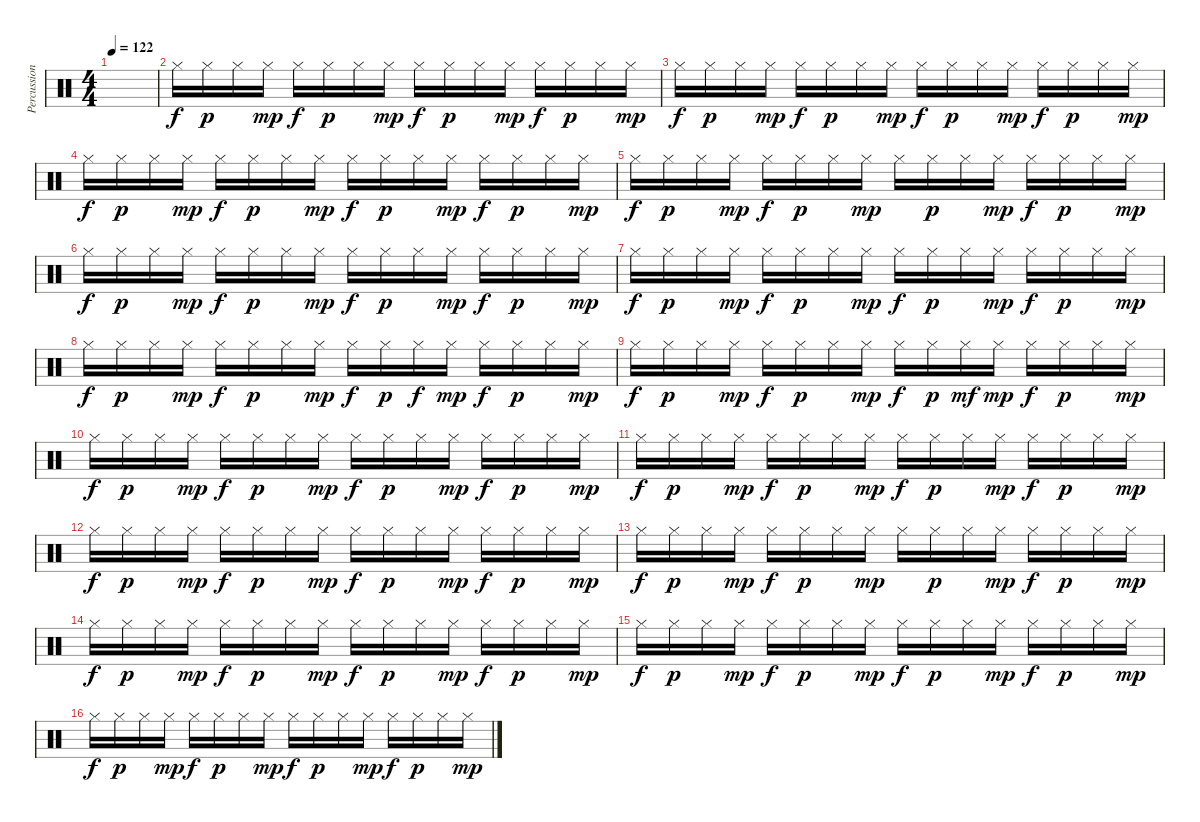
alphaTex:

\track ("Percussion" "Percussion") {instrument percussion}
\staff {score}
\articulation defaults
\ts (4 4)
\tempo 122
\clef neutral
\ks c
|
"Hi-Hat (closed)".16 "Hi-Hat (closed)".16{dy p} "Hi-Hat (closed)".16 "Hi-Hat (closed)".16{dy mp} "Hi-Hat (closed)".16{dy f} "Hi-Hat (closed)".16{dy p} "Hi-Hat (closed)".16 "Hi-Hat (closed)".16{dy mp} "Hi-Hat (closed)".16{dy f} "Hi-Hat (closed)".16{dy p} "Hi-Hat (closed)".16 "Hi-Hat (closed)".16{dy mp} "Hi-Hat (closed)".16{dy f} "Hi-Hat (closed)".16{dy p} "Hi-Hat (closed)".16 "Hi-Hat (closed)".16{dy mp} |
"Hi-Hat (closed)".16{dy f} "Hi-Hat (closed)".16{dy p} "Hi-Hat (closed)".16 "Hi-Hat (closed)".16{dy mp} "Hi-Hat (closed)".16{dy f} "Hi-Hat (closed)".16{dy p} "Hi-Hat (closed)".16 "Hi-Hat (closed)".16{dy mp} "Hi-Hat (closed)".16{dy f} "Hi-Hat (closed)".16{dy p} "Hi-Hat (closed)".16 "Hi-Hat (closed)".16{dy mp} "Hi-Hat (closed)".16{dy f} "Hi-Hat (closed)".16{dy p} "Hi-Hat (closed)".16 "Hi-Hat (closed)".16{dy mp} |
"Hi-Hat (closed)".16{dy f} "Hi-Hat (closed)".16{dy p} "Hi-Hat (closed)".16 "Hi-Hat (closed)".16{dy mp} "Hi-Hat (closed)".16{dy f} "Hi-Hat (closed)".16{dy p} "Hi-Hat (closed)".16 "Hi-Hat (closed)".16{dy mp} "Hi-Hat (closed)".16{dy f} "Hi-Hat (closed)".16{dy p} "Hi-Hat (closed)".16 "Hi-Hat (closed)".16{dy mp} "Hi-Hat (closed)".16{dy f} "Hi-Hat (closed)".16{dy p} "Hi-Hat (closed)".16 "Hi-Hat (closed)".16{dy mp} |
"Hi-Hat (closed)".16{dy f} "Hi-Hat (closed)".16{dy p} "Hi-Hat (closed)".16 "Hi-Hat (closed)".16{dy mp} "Hi-Hat (closed)".16{dy f} "Hi-Hat (closed)".16{dy p} "Hi-Hat (closed)".16 "Hi-Hat (closed)".16{dy mp} "Hi-Hat (closed)".16 "Hi-Hat (closed)".16{dy p} "Hi-Hat (closed)".16 "Hi-Hat (closed)".16{dy mp} "Hi-Hat (closed)".16{dy f} "Hi-Hat (closed)".16{dy p} "Hi-Hat (closed)".16 "Hi-Hat (closed)".16{dy mp} |
"Hi-Hat (closed)".16{dy f} "Hi-Hat (closed)".16{dy p} "Hi-Hat (closed)".16 "Hi-Hat (closed)".16{dy mp} "Hi-Hat (closed)".16{dy f} "Hi-Hat (closed)".16{dy p} "Hi-Hat (closed)".16 "Hi-Hat (closed)".16{dy mp} "Hi-Hat (closed)".16{dy f} "Hi-Hat (closed)".16{dy p} "Hi-Hat (closed)".16 "Hi-Hat (closed)".16{dy mp} "Hi-Hat (closed)".16{dy f} "Hi-Hat (closed)".16{dy p} "Hi-Hat (closed)".16 "Hi-Hat (closed)".16{dy mp} |
"Hi-Hat (closed)".16{dy f} "Hi-Hat (closed)".16{dy p} "Hi-Hat (closed)".16 "Hi-Hat (closed)".16{dy mp} "Hi-Hat (closed)".16{dy f} "Hi-Hat (closed)".16{dy p} "Hi-Hat (closed)".16 "Hi-Hat (closed)".16{dy mp} "Hi-Hat (closed)".16{dy f} "Hi-Hat (closed)".16{dy p} "Hi-Hat (closed)".16 "Hi-Hat (closed)".16{dy mp} "Hi-Hat (closed)".16{dy f} "Hi-Hat (closed)".16{dy p} "Hi-Hat (closed)".16 "Hi-Hat (closed)".16{dy mp} |
"Hi-Hat (closed)".16{dy f} "Hi-Hat (closed)".16{dy p} "Hi-Hat (closed)".16 "Hi-Hat (closed)".16{dy mp} "Hi-Hat (closed)".16{dy f} "Hi-Hat (closed)".16{dy p} "Hi-Hat (closed)".16 "Hi-Hat (closed)".16{dy mp} "Hi-Hat (closed)".16{dy f} "Hi-Hat (closed)".16{dy p} "Hi-Hat (closed)".16{dy f} "Hi-Hat (closed)".16{dy mp} "Hi-Hat (closed)".16{dy f} "Hi-Hat (closed)".16{dy p} "Hi-Hat (closed)".16 "Hi-Hat (closed)".16{dy mp} |
"Hi-Hat (closed)".16{dy f} "Hi-Hat (closed)".16{dy p} "Hi-Hat (closed)".16 "Hi-Hat (closed)".16{dy mp} "Hi-Hat (closed)".16{dy f} "Hi-Hat (closed)".16{dy p} "Hi-Hat (closed)".16 "Hi-Hat (closed)".16{dy mp} "Hi-Hat (closed)".16{dy f} "Hi-Hat (closed)".16{dy p} "Hi-Hat (closed)".16{dy mf} "Hi-Hat (closed)".16{dy mp} "Hi-Hat (closed)".16{dy f} "Hi-Hat (closed)".16{dy p} "Hi-Hat (closed)".16 "Hi-Hat (closed)".16{dy mp} |
"Hi-Hat (closed)".16{dy f} "Hi-Hat (closed)".16{dy p} "Hi-Hat (closed)".16 "Hi-Hat (closed)".16{dy mp} "Hi-Hat (closed)".16{dy f} "Hi-Hat (closed)".16{dy p} "Hi-Hat (closed)".16 "Hi-Hat (closed)".16{dy mp} "Hi-Hat (closed)".16{dy f} "Hi-Hat (closed)".16{dy p} "Hi-Hat (closed)".16 "Hi-Hat (closed)".16{dy mp} "Hi-Hat (closed)".16{dy f} "Hi-Hat (closed)".16{dy p} "Hi-Hat (closed)".16 "Hi-Hat (closed)".16{dy mp} |
"Hi-Hat (closed)".16{dy f} "Hi-Hat (closed)".16{dy p} "Hi-Hat (closed)".16 "Hi-Hat (closed)".16{dy mp} "Hi-Hat (closed)".16{dy f} "Hi-Hat (closed)".16{dy p} "Hi-Hat (closed)".16 "Hi-Hat (closed)".16{dy mp} "Hi-Hat (closed)".16{dy f} "Hi-Hat (closed)".16{dy p} "Hi-Hat (closed)".16 "Hi-Hat (closed)".16{dy mp} "Hi-Hat (closed)".16{dy f} "Hi-Hat (closed)".16{dy p} "Hi-Hat (closed)".16 "Hi-Hat (closed)".16{dy mp} |
"Hi-Hat (closed)".16{dy f} "Hi-Hat (closed)".16{dy p} "Hi-Hat (closed)".16 "Hi-Hat (closed)".16{dy mp} "Hi-Hat (closed)".16{dy f} "Hi-Hat (closed)".16{dy p} "Hi-Hat (closed)".16 "Hi-Hat (closed)".16{dy mp} "Hi-Hat (closed)".16{dy f} "Hi-Hat (closed)".16{dy p} "Hi-Hat (closed)".16 "Hi-Hat (closed)".16{dy mp} "Hi-Hat (closed)".16{dy f} "Hi-Hat (closed)".16{dy p} "Hi-Hat (closed)".16 "Hi-Hat (closed)".16{dy mp} |
"Hi-Hat (closed)".16{dy f} "Hi-Hat (closed)".16{dy p} "Hi-Hat (closed)".16 "Hi-Hat (closed)".16{dy mp} "Hi-Hat (closed)".16{dy f} "Hi-Hat (closed)".16{dy p} "Hi-Hat (closed)".16 "Hi-Hat (closed)".16{dy mp} "Hi-Hat (closed)".16 "Hi-Hat (closed)".16{dy p} "Hi-Hat (closed)".16 "Hi-Hat (closed)".16{dy mp} "Hi-Hat (closed)".16{dy f} "Hi-Hat (closed)".16{dy p} "Hi-Hat (closed)".16 "Hi-Hat (closed)".16{dy mp} |
"Hi-Hat (closed)".16{dy f} "Hi-Hat (closed)".16{dy p} "Hi-Hat (closed)".16 "Hi-Hat (closed)".16{dy mp} "Hi-Hat (closed)".16{dy f} "Hi-Hat (closed)".16{dy p} "Hi-Hat (closed)".16 "Hi-Hat (closed)".16{dy mp} "Hi-Hat (closed)".16{dy f} "Hi-Hat (closed)".16{dy p} "Hi-Hat (closed)".16 "Hi-Hat (closed)".16{dy mp} "Hi-Hat (closed)".16{dy f} "Hi-Hat (closed)".16{dy p} "Hi-Hat (closed)".16 "Hi-Hat (closed)".16{dy mp} |
"Hi-Hat (closed)".16{dy f} "Hi-Hat (closed)".16{dy p} "Hi-Hat (closed)".16 "Hi-Hat (closed)".16{dy mp} "Hi-Hat (closed)".16{dy f} "Hi-Hat (closed)".16{dy p} "Hi-Hat (closed)".16 "Hi-Hat (closed)".16{dy mp} "Hi-Hat (closed)".16{dy f} "Hi-Hat (closed)".16{dy p} "Hi-Hat (closed)".16 "Hi-Hat (closed)".16{dy mp} "Hi-Hat (closed)".16{dy f} "Hi-Hat (closed)".16{dy p} "Hi-Hat (closed)".16 "Hi-Hat (closed)".16{dy mp} |
"Hi-Hat (closed)".16{dy f} "Hi-Hat (closed)".16{dy p} "Hi-Hat (closed)".16 "Hi-Hat (closed)".16{dy mp} "Hi-Hat (closed)".16{dy f} "Hi-Hat (closed)".16{dy p} "Hi-Hat (closed)".16 "Hi-Hat (closed)".16{dy mp} "Hi-Hat (closed)".16{dy f} "Hi-Hat (closed)".16{dy p} "Hi-Hat (closed)".16 "Hi-Hat (closed)".16{dy mp} "Hi-Hat (closed)".16{dy f} "Hi-Hat (closed)".16{dy p} "Hi-Hat (closed)".16 "Hi-Hat (closed)".16{dy mp}
